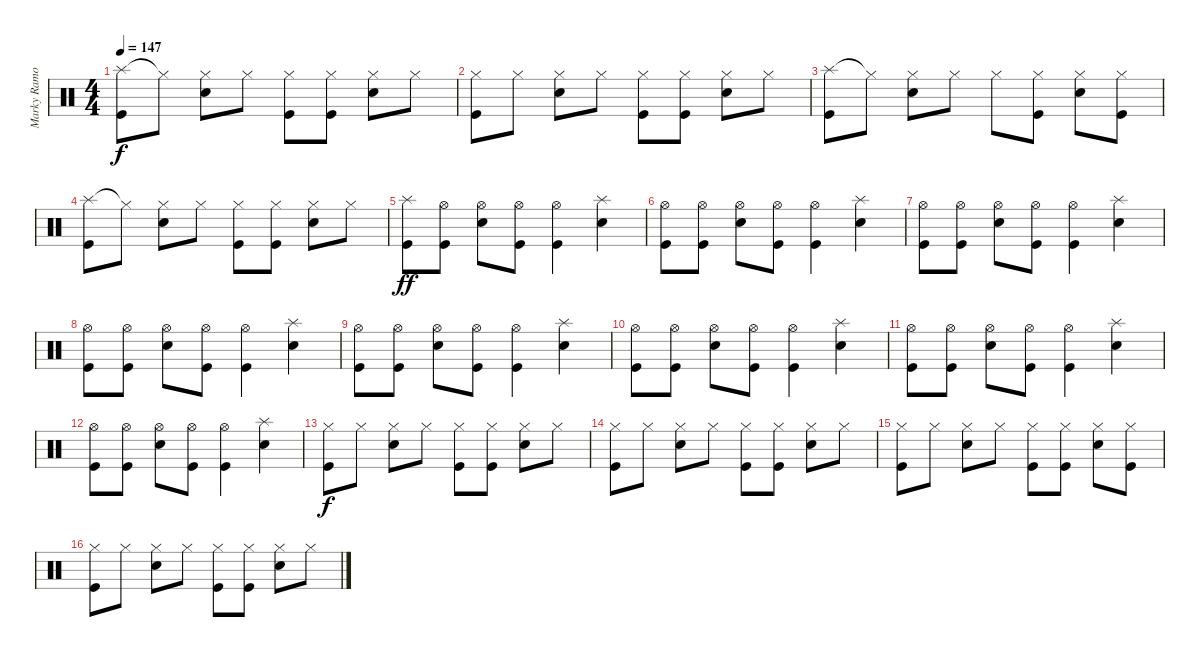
\track ("Marky Ramone - Drums" "Marky Ramo") {instrument percussion}
\staff {score}
\articulation defaults
\ts (4 4)
\tempo 147
\clef neutral
\ks c
("Splash (hit)" "Kick (hit)").8{dy f} "Hi-Hat (closed)"{t}.8 ("Hi-Hat (closed)" "Snare (hit) 2").8 "Hi-Hat (closed)".8 ("Hi-Hat (closed)" "Kick (hit)").8 ("Hi-Hat (closed)" "Kick (hit)").8 ("Hi-Hat (closed)" "Snare (hit) 2").8 "Hi-Hat (closed)".8 |
("Hi-Hat (closed)" "Kick (hit)").8 "Hi-Hat (closed)".8 ("Hi-Hat (closed)" "Snare (hit) 2").8 "Hi-Hat (closed)".8 ("Hi-Hat (closed)" "Kick (hit)").8 ("Hi-Hat (closed)" "Kick (hit)").8 ("Hi-Hat (closed)" "Snare (hit) 2").8 "Hi-Hat (closed)".8 |
("Splash (hit)" "Kick (hit)").8 "Hi-Hat (closed)"{t}.8 ("Hi-Hat (closed)" "Snare (hit) 2").8 "Hi-Hat (closed)".8 "Hi-Hat (closed)".8 ("Hi-Hat (closed)" "Kick (hit)").8 ("Hi-Hat (closed)" "Snare (hit) 2").8 ("Hi-Hat (closed)" "Kick (hit)").8 |
("Splash (hit)" "Kick (hit)").8 "Hi-Hat (closed)"{t}.8 ("Hi-Hat (closed)" "Snare (hit) 2").8 "Hi-Hat (closed)".8 ("Hi-Hat (closed)" "Kick (hit)").8 ("Hi-Hat (closed)" "Kick (hit)").8 ("Hi-Hat (closed)" "Snare (hit) 2").8 "Hi-Hat (closed)".8 |
("Splash (hit)" "Kick (hit)").8{dy ff} ("Hi-Hat (open)" "Kick (hit)").8 ("Hi-Hat (open)" "Snare (hit) 2").8 ("Hi-Hat (open)" "Kick (hit)").8 ("Hi-Hat (open)" "Kick (hit)").4 ("Splash (hit)" "Snare (hit) 2").4 |
("Hi-Hat (open)" "Kick (hit)").8 ("Hi-Hat (open)" "Kick (hit)").8 ("Hi-Hat (open)" "Snare (hit) 2").8 ("Hi-Hat (open)" "Kick (hit)").8 ("Hi-Hat (open)" "Kick (hit)").4 ("Splash (hit)" "Snare (hit) 2").4 |
("Hi-Hat (open)" "Kick (hit)").8 ("Hi-Hat (open)" "Kick (hit)").8 ("Hi-Hat (open)" "Snare (hit) 2").8 ("Hi-Hat (open)" "Kick (hit)").8 ("Hi-Hat (open)" "Kick (hit)").4 ("Splash (hit)" "Snare (hit) 2").4 |
("Hi-Hat (open)" "Kick (hit)").8 ("Hi-Hat (open)" "Kick (hit)").8 ("Hi-Hat (open)" "Snare (hit) 2").8 ("Hi-Hat (open)" "Kick (hit)").8 ("Hi-Hat (open)" "Kick (hit)").4 ("Splash (hit)" "Snare (hit) 2").4 |
("Hi-Hat (open)" "Kick (hit)").8 ("Hi-Hat (open)" "Kick (hit)").8 ("Hi-Hat (open)" "Snare (hit) 2").8 ("Hi-Hat (open)" "Kick (hit)").8 ("Hi-Hat (open)" "Kick (hit)").4 ("Splash (hit)" "Snare (hit) 2").4 |
("Hi-Hat (open)" "Kick (hit)").8 ("Hi-Hat (open)" "Kick (hit)").8 ("Hi-Hat (open)" "Snare (hit) 2").8 ("Hi-Hat (open)" "Kick (hit)").8 ("Hi-Hat (open)" "Kick (hit)").4 ("Splash (hit)" "Snare (hit) 2").4 |
("Hi-Hat (open)" "Kick (hit)").8 ("Hi-Hat (open)" "Kick (hit)").8 ("Hi-Hat (open)" "Snare (hit) 2").8 ("Hi-Hat (open)" "Kick (hit)").8 ("Hi-Hat (open)" "Kick (hit)").4 ("Splash (hit)" "Snare (hit) 2").4 |
("Hi-Hat (open)" "Kick (hit)").8 ("Hi-Hat (open)" "Kick (hit)").8 ("Hi-Hat (open)" "Snare (hit) 2").8 ("Hi-Hat (open)" "Kick (hit)").8 ("Hi-Hat (open)" "Kick (hit)").4 ("Splash (hit)" "Snare (hit) 2").4 |
("Hi-Hat (closed)" "Kick (hit)").8{dy f} "Hi-Hat (closed)".8 ("Hi-Hat (closed)" "Snare (hit) 2").8 "Hi-Hat (closed)".8 ("Hi-Hat (closed)" "Kick (hit)").8 ("Hi-Hat (closed)" "Kick (hit)").8 ("Hi-Hat (closed)" "Snare (hit) 2").8 "Hi-Hat (closed)".8 |
("Hi-Hat (closed)" "Kick (hit)").8 "Hi-Hat (closed)".8 ("Hi-Hat (closed)" "Snare (hit) 2").8 "Hi-Hat (closed)".8 ("Hi-Hat (closed)" "Kick (hit)").8 ("Hi-Hat (closed)" "Kick (hit)").8 ("Hi-Hat (closed)" "Snare (hit) 2").8 "Hi-Hat (closed)".8 |
("Hi-Hat (closed)" "Kick (hit)").8 "Hi-Hat (closed)".8 ("Hi-Hat (closed)" "Snare (hit) 2").8 "Hi-Hat (closed)".8 ("Hi-Hat (closed)" "Kick (hit)").8 ("Hi-Hat (closed)" "Kick (hit)").8 ("Hi-Hat (closed)" "Snare (hit) 2").8 ("Hi-Hat (closed)" "Kick (hit)").8 |
("Hi-Hat (closed)" "Kick (hit)").8 "Hi-Hat (closed)".8 ("Hi-Hat (closed)" "Snare (hit) 2").8 "Hi-Hat (closed)".8 ("Hi-Hat (closed)" "Kick (hit)").8 ("Hi-Hat (closed)" "Kick (hit)").8 ("Hi-Hat (closed)" "Snare (hit) 2").8 "Hi-Hat (closed)".8
